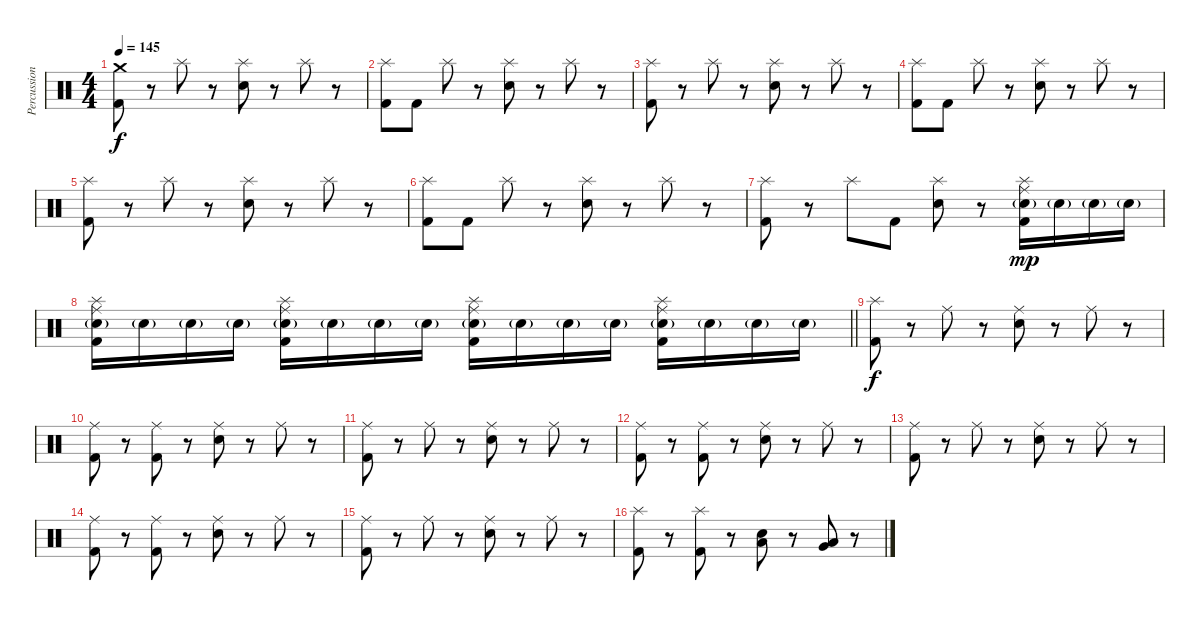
\track ("Percussion" "Percussion") {instrument percussion}
\staff {score}
\articulation defaults
\ts (4 4)
\tempo 145
\clef neutral
\ks c
("Crash medium (hit)" "Kick (hit) 2").8{dy f} r.8 "Splash (hit)".8 r.8 ("Splash (hit)" "Electric Snare (hit)").8 r.8 "Splash (hit)".8 r.8 |
("Splash (hit)" "Kick (hit) 2").8 "Kick (hit) 2".8 "Splash (hit)".8 r.8 ("Splash (hit)" "Electric Snare (hit)").8 r.8 "Splash (hit)".8 r.8 |
("Splash (hit)" "Kick (hit) 2").8 r.8 "Splash (hit)".8 r.8 ("Splash (hit)" "Electric Snare (hit)").8 r.8 "Splash (hit)".8 r.8 |
("Splash (hit)" "Kick (hit) 2").8 "Kick (hit) 2".8 "Splash (hit)".8 r.8 ("Splash (hit)" "Electric Snare (hit)").8 r.8 "Splash (hit)".8 r.8 |
("Splash (hit)" "Kick (hit) 2").8 r.8 "Splash (hit)".8 r.8 ("Splash (hit)" "Electric Snare (hit)").8 r.8 "Splash (hit)".8 r.8 |
("Splash (hit)" "Kick (hit) 2").8 "Kick (hit) 2".8 "Splash (hit)".8 r.8 ("Splash (hit)" "Electric Snare (hit)").8 r.8 "Splash (hit)".8 r.8 |
("Splash (hit)" "Kick (hit) 2").8 r.8 "Splash (hit)".8 "Kick (hit) 2".8 ("Splash (hit)" "Electric Snare (hit)").8 r.8 ("Splash (hit)" "Ride (middle)" "Electric Snare (hit)"{g} "Kick (hit) 2").16{dy mp} "Electric Snare (hit)"{g}.16 "Electric Snare (hit)"{g}.16 "Electric Snare (hit)"{g}.16 |
\barLineRight lightlight
("Splash (hit)" "Ride (middle)" "Electric Snare (hit)"{g} "Kick (hit) 2").16 "Electric Snare (hit)"{g}.16 "Electric Snare (hit)"{g}.16 "Electric Snare (hit)"{g}.16 ("Splash (hit)" "Ride (middle)" "Electric Snare (hit)"{g} "Kick (hit) 2").16 "Electric Snare (hit)"{g}.16 "Electric Snare (hit)"{g}.16 "Electric Snare (hit)"{g}.16 ("Splash (hit)" "Ride (middle)" "Electric Snare (hit)"{g} "Kick (hit) 2").16 "Electric Snare (hit)"{g}.16 "Electric Snare (hit)"{g}.16 "Electric Snare (hit)"{g}.16 ("Splash (hit)" "Ride (middle)" "Electric Snare (hit)"{g} "Kick (hit) 2").16 "Electric Snare (hit)"{g}.16 "Electric Snare (hit)"{g}.16 "Electric Snare (hit)"{g}.16 |
\section ("" "")
("Splash (hit)" "Kick (hit) 2").8{dy f} r.8 "Ride (middle)".8 r.8 ("Ride (middle)" "Electric Snare (hit)").8 r.8 "Ride (middle)".8 r.8 |
("Ride (middle)" "Kick (hit) 2").8 r.8 ("Ride (middle)" "Kick (hit) 2").8 r.8 ("Ride (middle)" "Electric Snare (hit)").8 r.8 "Ride (middle)".8 r.8 |
("Ride (middle)" "Kick (hit) 2").8 r.8 "Ride (middle)".8 r.8 ("Ride (middle)" "Electric Snare (hit)").8 r.8 "Ride (middle)".8 r.8 |
("Ride (middle)" "Kick (hit) 2").8 r.8 ("Ride (middle)" "Kick (hit) 2").8 r.8 ("Ride (middle)" "Electric Snare (hit)").8 r.8 "Ride (middle)".8 r.8 |
("Ride (middle)" "Kick (hit) 2").8 r.8 "Ride (middle)".8 r.8 ("Ride (middle)" "Electric Snare (hit)").8 r.8 "Ride (middle)".8 r.8 |
("Ride (middle)" "Kick (hit) 2").8 r.8 ("Ride (middle)" "Kick (hit) 2").8 r.8 ("Ride (middle)" "Electric Snare (hit)").8 r.8 "Ride (middle)".8 r.8 |
("Ride (middle)" "Kick (hit) 2").8 r.8 "Ride (middle)".8 r.8 ("Ride (middle)" "Electric Snare (hit)").8 r.8 "Ride (middle)".8 r.8 |
("Splash (hit)" "Kick (hit) 2").8 r.8 ("Splash (hit)" "Kick (hit) 2").8 r.8 ("Low Tom (hit)" "Electric Snare (hit)").8 r.8 ("Very Low Tom (hit)" "Low Tom (hit)").8 r.8
